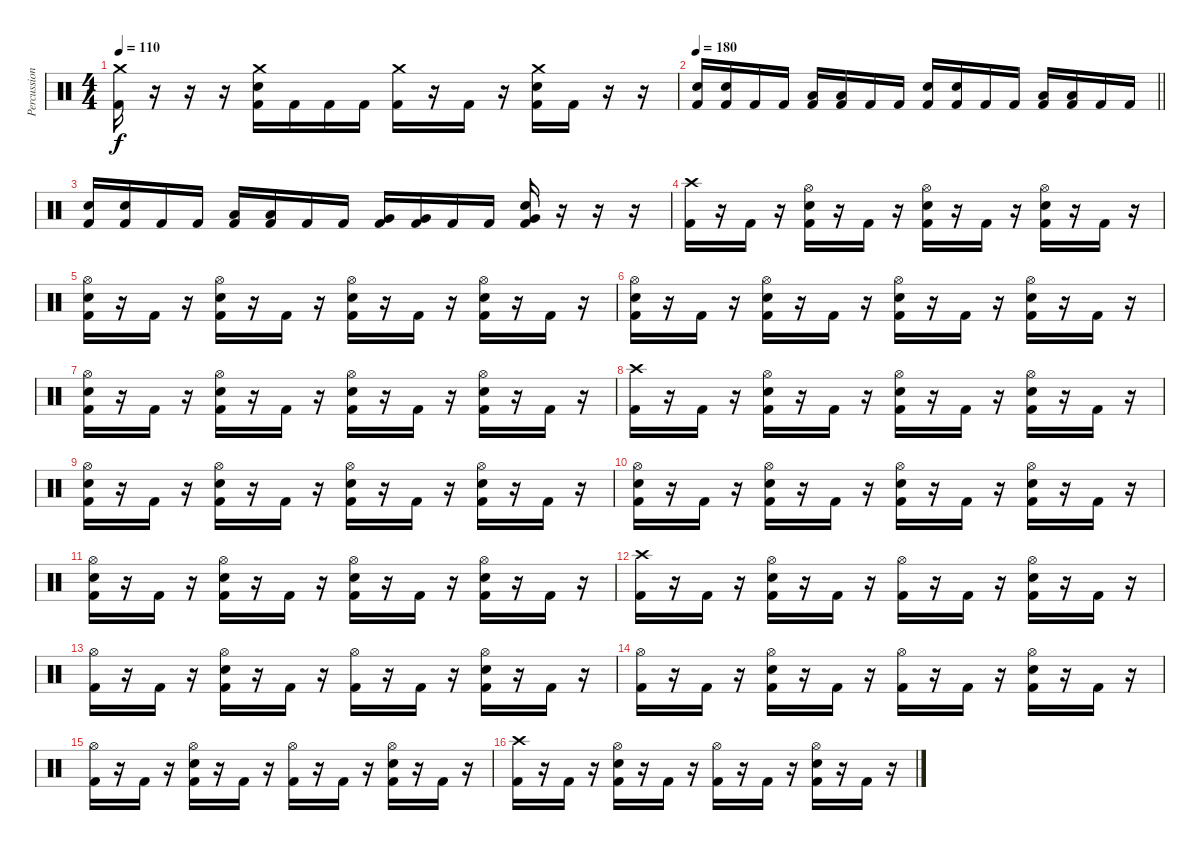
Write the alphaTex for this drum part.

\track ("Percussion" "Percussion") {instrument percussion}
\staff {score}
\articulation defaults
\ts (4 4)
\tempo 110
\clef neutral
\ks c
("Crash medium (hit)" "Kick (hit) 2").16{dy f} r.16 r.16 r.16 ("Crash medium (hit)" "Electric Snare (hit)" "Kick (hit) 2").16 "Kick (hit) 2".16 "Kick (hit) 2".16 "Kick (hit) 2".16 ("Crash medium (hit)" "Kick (hit) 2").16 r.16 "Kick (hit) 2".16 r.16 ("Crash medium (hit)" "Electric Snare (hit)" "Kick (hit) 2").16 "Kick (hit) 2".16 r.16 r.16 |
\tempo 180
\barLineRight lightlight
("Electric Snare (hit)" "Kick (hit) 2").16 ("Electric Snare (hit)" "Kick (hit) 2").16 "Kick (hit) 2".16 "Kick (hit) 2".16 ("Low Tom (hit)" "Kick (hit) 2").16 ("Low Tom (hit)" "Kick (hit) 2").16 "Kick (hit) 2".16 "Kick (hit) 2".16 ("Electric Snare (hit)" "Kick (hit) 2").16 ("Electric Snare (hit)" "Kick (hit) 2").16 "Kick (hit) 2".16 "Kick (hit) 2".16 ("Low Tom (hit)" "Kick (hit) 2").16 ("Low Tom (hit)" "Kick (hit) 2").16 "Kick (hit) 2".16 "Kick (hit) 2".16 |
("Electric Snare (hit)" "Kick (hit) 2").16 ("Electric Snare (hit)" "Kick (hit) 2").16 "Kick (hit) 2".16 "Kick (hit) 2".16 ("Low Tom (hit)" "Kick (hit) 2").16 ("Low Tom (hit)" "Kick (hit) 2").16 "Kick (hit) 2".16 "Kick (hit) 2".16 ("Very Low Tom (hit)" "Kick (hit) 2").16 ("Very Low Tom (hit)" "Kick (hit) 2").16 "Kick (hit) 2".16 "Kick (hit) 2".16 ("Very Low Tom (hit)" "Electric Snare (hit)" "Kick (hit) 2").16 r.16 r.16 r.16 |
("Crash high (hit)" "Kick (hit) 2").16 r.16 "Kick (hit) 2".16 r.16 ("Hi-Hat (open)" "Electric Snare (hit)" "Kick (hit) 2").16 r.16 "Kick (hit) 2".16 r.16 ("Hi-Hat (open)" "Electric Snare (hit)" "Kick (hit) 2").16 r.16 "Kick (hit) 2".16 r.16 ("Hi-Hat (open)" "Electric Snare (hit)" "Kick (hit) 2").16 r.16 "Kick (hit) 2".16 r.16 |
("Hi-Hat (open)" "Electric Snare (hit)" "Kick (hit) 2").16 r.16 "Kick (hit) 2".16 r.16 ("Hi-Hat (open)" "Electric Snare (hit)" "Kick (hit) 2").16 r.16 "Kick (hit) 2".16 r.16 ("Hi-Hat (open)" "Electric Snare (hit)" "Kick (hit) 2").16 r.16 "Kick (hit) 2".16 r.16 ("Hi-Hat (open)" "Electric Snare (hit)" "Kick (hit) 2").16 r.16 "Kick (hit) 2".16 r.16 |
("Hi-Hat (open)" "Electric Snare (hit)" "Kick (hit) 2").16 r.16 "Kick (hit) 2".16 r.16 ("Hi-Hat (open)" "Electric Snare (hit)" "Kick (hit) 2").16 r.16 "Kick (hit) 2".16 r.16 ("Hi-Hat (open)" "Electric Snare (hit)" "Kick (hit) 2").16 r.16 "Kick (hit) 2".16 r.16 ("Hi-Hat (open)" "Electric Snare (hit)" "Kick (hit) 2").16 r.16 "Kick (hit) 2".16 r.16 |
("Hi-Hat (open)" "Electric Snare (hit)" "Kick (hit) 2").16 r.16 "Kick (hit) 2".16 r.16 ("Hi-Hat (open)" "Electric Snare (hit)" "Kick (hit) 2").16 r.16 "Kick (hit) 2".16 r.16 ("Hi-Hat (open)" "Electric Snare (hit)" "Kick (hit) 2").16 r.16 "Kick (hit) 2".16 r.16 ("Hi-Hat (open)" "Electric Snare (hit)" "Kick (hit) 2").16 r.16 "Kick (hit) 2".16 r.16 |
("Crash high (hit)" "Kick (hit) 2").16 r.16 "Kick (hit) 2".16 r.16 ("Hi-Hat (open)" "Electric Snare (hit)" "Kick (hit) 2").16 r.16 "Kick (hit) 2".16 r.16 ("Hi-Hat (open)" "Electric Snare (hit)" "Kick (hit) 2").16 r.16 "Kick (hit) 2".16 r.16 ("Hi-Hat (open)" "Electric Snare (hit)" "Kick (hit) 2").16 r.16 "Kick (hit) 2".16 r.16 |
("Hi-Hat (open)" "Electric Snare (hit)" "Kick (hit) 2").16 r.16 "Kick (hit) 2".16 r.16 ("Hi-Hat (open)" "Electric Snare (hit)" "Kick (hit) 2").16 r.16 "Kick (hit) 2".16 r.16 ("Hi-Hat (open)" "Electric Snare (hit)" "Kick (hit) 2").16 r.16 "Kick (hit) 2".16 r.16 ("Hi-Hat (open)" "Electric Snare (hit)" "Kick (hit) 2").16 r.16 "Kick (hit) 2".16 r.16 |
("Hi-Hat (open)" "Electric Snare (hit)" "Kick (hit) 2").16 r.16 "Kick (hit) 2".16 r.16 ("Hi-Hat (open)" "Electric Snare (hit)" "Kick (hit) 2").16 r.16 "Kick (hit) 2".16 r.16 ("Hi-Hat (open)" "Electric Snare (hit)" "Kick (hit) 2").16 r.16 "Kick (hit) 2".16 r.16 ("Hi-Hat (open)" "Electric Snare (hit)" "Kick (hit) 2").16 r.16 "Kick (hit) 2".16 r.16 |
("Hi-Hat (open)" "Electric Snare (hit)" "Kick (hit) 2").16 r.16 "Kick (hit) 2".16 r.16 ("Hi-Hat (open)" "Electric Snare (hit)" "Kick (hit) 2").16 r.16 "Kick (hit) 2".16 r.16 ("Hi-Hat (open)" "Electric Snare (hit)" "Kick (hit) 2").16 r.16 "Kick (hit) 2".16 r.16 ("Hi-Hat (open)" "Electric Snare (hit)" "Kick (hit) 2").16 r.16 "Kick (hit) 2".16 r.16 |
("Crash high (hit)" "Kick (hit) 2").16 r.16 "Kick (hit) 2".16 r.16 ("Hi-Hat (open)" "Electric Snare (hit)" "Kick (hit) 2").16 r.16 "Kick (hit) 2".16 r.16 ("Hi-Hat (open)" "Kick (hit) 2").16 r.16 "Kick (hit) 2".16 r.16 ("Hi-Hat (open)" "Electric Snare (hit)" "Kick (hit) 2").16 r.16 "Kick (hit) 2".16 r.16 |
("Hi-Hat (open)" "Kick (hit) 2").16 r.16 "Kick (hit) 2".16 r.16 ("Hi-Hat (open)" "Electric Snare (hit)" "Kick (hit) 2").16 r.16 "Kick (hit) 2".16 r.16 ("Hi-Hat (open)" "Kick (hit) 2").16 r.16 "Kick (hit) 2".16 r.16 ("Hi-Hat (open)" "Electric Snare (hit)" "Kick (hit) 2").16 r.16 "Kick (hit) 2".16 r.16 |
("Hi-Hat (open)" "Kick (hit) 2").16 r.16 "Kick (hit) 2".16 r.16 ("Hi-Hat (open)" "Electric Snare (hit)" "Kick (hit) 2").16 r.16 "Kick (hit) 2".16 r.16 ("Hi-Hat (open)" "Kick (hit) 2").16 r.16 "Kick (hit) 2".16 r.16 ("Hi-Hat (open)" "Electric Snare (hit)" "Kick (hit) 2").16 r.16 "Kick (hit) 2".16 r.16 |
("Hi-Hat (open)" "Kick (hit) 2").16 r.16 "Kick (hit) 2".16 r.16 ("Hi-Hat (open)" "Electric Snare (hit)" "Kick (hit) 2").16 r.16 "Kick (hit) 2".16 r.16 ("Hi-Hat (open)" "Kick (hit) 2").16 r.16 "Kick (hit) 2".16 r.16 ("Hi-Hat (open)" "Electric Snare (hit)" "Kick (hit) 2").16 r.16 "Kick (hit) 2".16 r.16 |
("Crash high (hit)" "Kick (hit) 2").16 r.16 "Kick (hit) 2".16 r.16 ("Hi-Hat (open)" "Electric Snare (hit)" "Kick (hit) 2").16 r.16 "Kick (hit) 2".16 r.16 ("Hi-Hat (open)" "Kick (hit) 2").16 r.16 "Kick (hit) 2".16 r.16 ("Hi-Hat (open)" "Electric Snare (hit)" "Kick (hit) 2").16 r.16 "Kick (hit) 2".16 r.16
